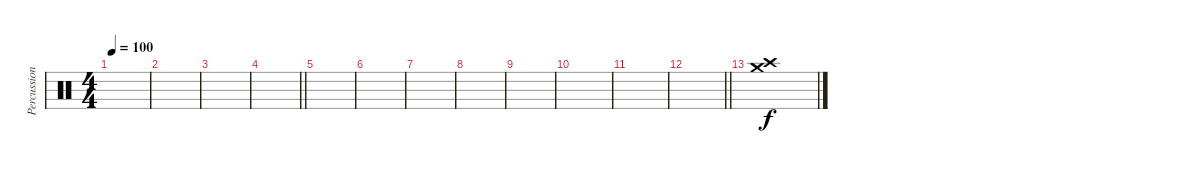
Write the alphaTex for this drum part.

\track ("Percussion" "Percussion") {instrument percussion}
\staff {score}
\articulation defaults
\ts (4 4)
\tempo 100
\clef neutral
\ks c
|
|
|
\barLineRight lightlight
|
|
|
|
|
|
|
|
\barLineRight lightlight
|
("Crash high (hit)" "Crash medium (hit)").1
